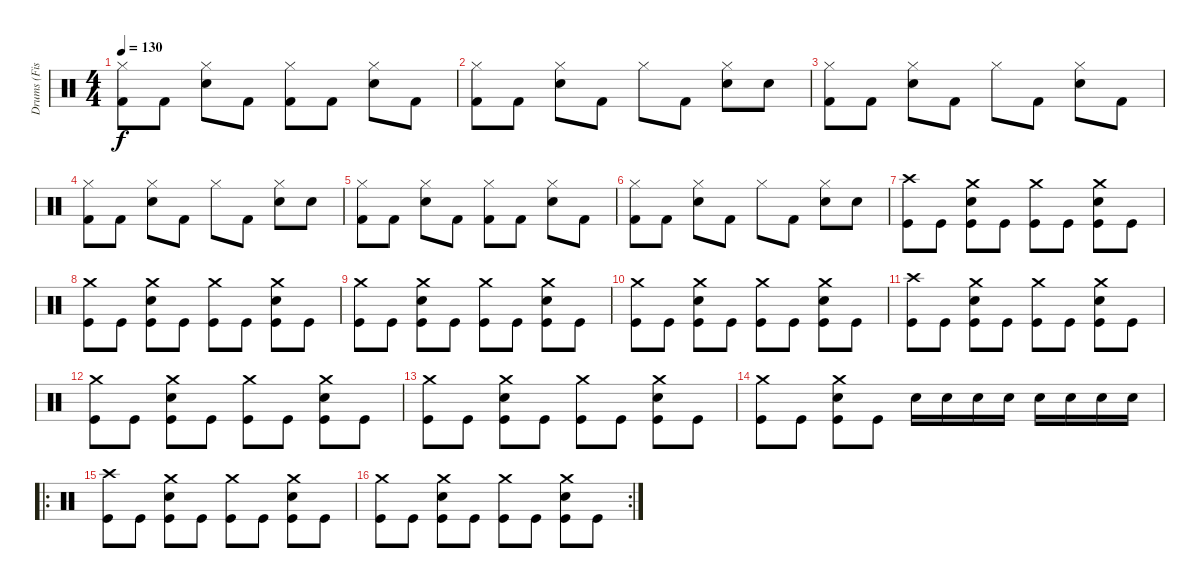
\track ("Drums (Fish)" "Drums (Fis") {instrument percussion}
\staff {score}
\articulation defaults
\ts (4 4)
\tempo 130
\clef neutral
\ks c
("Hi-Hat (closed)" "Kick (hit) 2").8{dy f} "Kick (hit) 2".8 ("Hi-Hat (closed)" "Electric Snare (hit)").8 "Kick (hit) 2".8 ("Hi-Hat (closed)" "Kick (hit) 2").8 "Kick (hit) 2".8 ("Hi-Hat (closed)" "Electric Snare (hit)").8 "Kick (hit) 2".8 |
("Hi-Hat (closed)" "Kick (hit) 2").8 "Kick (hit) 2".8 ("Hi-Hat (closed)" "Electric Snare (hit)").8 "Kick (hit) 2".8 "Hi-Hat (closed)".8 "Kick (hit) 2".8 ("Hi-Hat (closed)" "Electric Snare (hit)").8 "Electric Snare (hit)".8 |
("Hi-Hat (closed)" "Kick (hit) 2").8 "Kick (hit) 2".8 ("Hi-Hat (closed)" "Electric Snare (hit)").8 "Kick (hit) 2".8 "Hi-Hat (closed)".8 "Kick (hit) 2".8 ("Hi-Hat (closed)" "Electric Snare (hit)").8 "Kick (hit) 2".8 |
("Hi-Hat (closed)" "Kick (hit) 2").8 "Kick (hit) 2".8 ("Hi-Hat (closed)" "Electric Snare (hit)").8 "Kick (hit) 2".8 "Hi-Hat (closed)".8 "Kick (hit) 2".8 ("Hi-Hat (closed)" "Electric Snare (hit)").8 "Electric Snare (hit)".8 |
("Hi-Hat (closed)" "Kick (hit) 2").8 "Kick (hit) 2".8 ("Hi-Hat (closed)" "Electric Snare (hit)").8 "Kick (hit) 2".8 ("Hi-Hat (closed)" "Kick (hit) 2").8 "Kick (hit) 2".8 ("Hi-Hat (closed)" "Electric Snare (hit)").8 "Kick (hit) 2".8 |
("Hi-Hat (closed)" "Kick (hit) 2").8 "Kick (hit) 2".8 ("Hi-Hat (closed)" "Electric Snare (hit)").8 "Kick (hit) 2".8 "Hi-Hat (closed)".8 "Kick (hit) 2".8 ("Hi-Hat (closed)" "Electric Snare (hit)").8 "Electric Snare (hit)".8 |
("Crash high (hit)" "Kick (hit)").8 "Kick (hit)".8 ("Crash medium (hit)" "Electric Snare (hit)" "Kick (hit)").8 "Kick (hit)".8 ("Crash medium (hit)" "Kick (hit)").8 "Kick (hit)".8 ("Crash medium (hit)" "Electric Snare (hit)" "Kick (hit)").8 "Kick (hit)".8 |
("Crash medium (hit)" "Kick (hit)").8 "Kick (hit)".8 ("Crash medium (hit)" "Electric Snare (hit)" "Kick (hit)").8 "Kick (hit)".8 ("Crash medium (hit)" "Kick (hit)").8 "Kick (hit)".8 ("Crash medium (hit)" "Electric Snare (hit)" "Kick (hit)").8 "Kick (hit)".8 |
("Crash medium (hit)" "Kick (hit)").8 "Kick (hit)".8 ("Crash medium (hit)" "Electric Snare (hit)" "Kick (hit)").8 "Kick (hit)".8 ("Crash medium (hit)" "Kick (hit)").8 "Kick (hit)".8 ("Crash medium (hit)" "Electric Snare (hit)" "Kick (hit)").8 "Kick (hit)".8 |
("Crash medium (hit)" "Kick (hit)").8 "Kick (hit)".8 ("Crash medium (hit)" "Electric Snare (hit)" "Kick (hit)").8 "Kick (hit)".8 ("Crash medium (hit)" "Kick (hit)").8 "Kick (hit)".8 ("Crash medium (hit)" "Electric Snare (hit)" "Kick (hit)").8 "Kick (hit)".8 |
("Crash high (hit)" "Kick (hit)").8 "Kick (hit)".8 ("Crash medium (hit)" "Electric Snare (hit)" "Kick (hit)").8 "Kick (hit)".8 ("Crash medium (hit)" "Kick (hit)").8 "Kick (hit)".8 ("Crash medium (hit)" "Electric Snare (hit)" "Kick (hit)").8 "Kick (hit)".8 |
("Crash medium (hit)" "Kick (hit)").8 "Kick (hit)".8 ("Crash medium (hit)" "Electric Snare (hit)" "Kick (hit)").8 "Kick (hit)".8 ("Crash medium (hit)" "Kick (hit)").8 "Kick (hit)".8 ("Crash medium (hit)" "Electric Snare (hit)" "Kick (hit)").8 "Kick (hit)".8 |
("Crash medium (hit)" "Kick (hit)").8 "Kick (hit)".8 ("Crash medium (hit)" "Electric Snare (hit)" "Kick (hit)").8 "Kick (hit)".8 ("Crash medium (hit)" "Kick (hit)").8 "Kick (hit)".8 ("Crash medium (hit)" "Electric Snare (hit)" "Kick (hit)").8 "Kick (hit)".8 |
("Crash medium (hit)" "Kick (hit)").8 "Kick (hit)".8 ("Crash medium (hit)" "Electric Snare (hit)" "Kick (hit)").8 "Kick (hit)".8 "Snare (hit) 2".16 "Snare (hit) 2".16 "Snare (hit) 2".16 "Snare (hit) 2".16 "Snare (hit) 2".16 "Snare (hit) 2".16 "Snare (hit) 2".16 "Snare (hit) 2".16 |
\ro
("Crash high (hit)" "Kick (hit)").8 "Kick (hit)".8 ("Crash medium (hit)" "Electric Snare (hit)" "Kick (hit)").8 "Kick (hit)".8 ("Crash medium (hit)" "Kick (hit)").8 "Kick (hit)".8 ("Crash medium (hit)" "Electric Snare (hit)" "Kick (hit)").8 "Kick (hit)".8 |
\rc 2
("Crash medium (hit)" "Kick (hit)").8 "Kick (hit)".8 ("Crash medium (hit)" "Electric Snare (hit)" "Kick (hit)").8 "Kick (hit)".8 ("Crash medium (hit)" "Kick (hit)").8 "Kick (hit)".8 ("Crash medium (hit)" "Electric Snare (hit)" "Kick (hit)").8 "Kick (hit)".8
